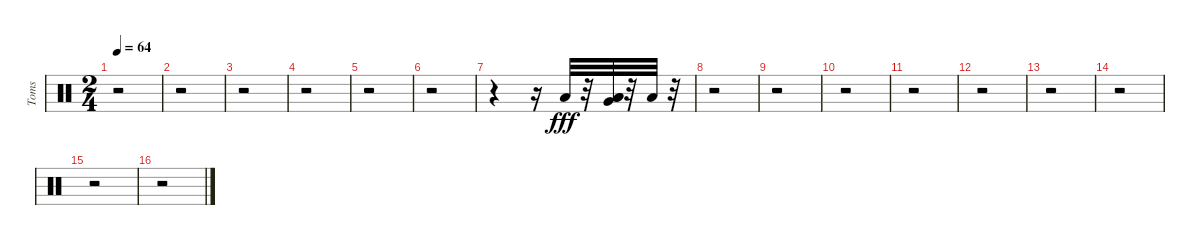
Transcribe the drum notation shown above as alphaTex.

\track ("Toms" "Toms") {instrument percussion}
\staff {score}
\articulation defaults
\ts (2 4)
\tempo 64
\clef neutral
\ks c
r.2{dy fff} |
r.2 |
r.2 |
r.2 |
r.2 |
r.2 |
r.4 r.16 "Low Tom (hit)".32 r.32 ("Low Tom (hit)" "Very Low Tom (hit)" "Low Tom (hit)").32 r.32 "Low Floor Tom (hit)".32 r.32 |
r.2 |
r.2 |
r.2 |
r.2 |
r.2 |
r.2 |
r.2 |
r.2 |
r.2
